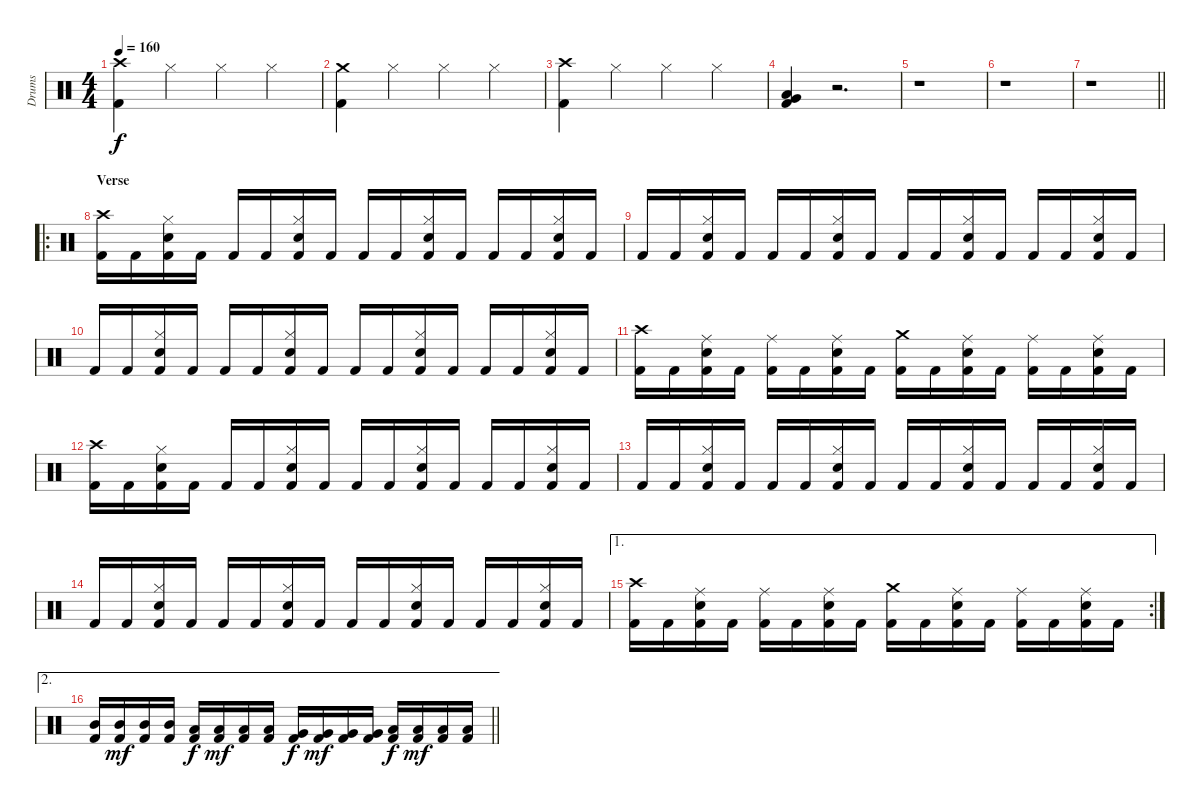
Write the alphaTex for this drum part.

\track ("Drums" "Drums") {instrument percussion}
\staff {score}
\articulation defaults
\ts (4 4)
\tempo 160
\clef neutral
\ks c
("Kick (hit) 2" "Crash high (hit)").4{dy f} "Hi-Hat (closed)".4 "Hi-Hat (closed)".4 "Hi-Hat (closed)".4 |
("Kick (hit) 2" "Crash medium (hit)").4 "Hi-Hat (closed)".4 "Hi-Hat (closed)".4 "Hi-Hat (closed)".4 |
("Kick (hit) 2" "Crash high (hit)").4 "Hi-Hat (closed)".4 "Hi-Hat (closed)".4 "Hi-Hat (closed)".4 |
("Kick (hit) 2" "Low Floor Tom (hit)" "Very Low Tom (hit)").4 r.2{d} |
r.1 |
r.1 |
\barLineRight lightlight
r.1 |
\ro
\section ("" "Verse")
("Kick (hit) 2" "Crash high (hit)").16 "Kick (hit) 2".16 ("Kick (hit) 2" "Hi-Hat (closed)" "Electric Snare (hit)").16 "Kick (hit) 2".16 "Kick (hit) 2".16 "Kick (hit) 2".16 ("Kick (hit) 2" "Hi-Hat (closed)" "Electric Snare (hit)").16 "Kick (hit) 2".16 "Kick (hit) 2".16 "Kick (hit) 2".16 ("Kick (hit) 2" "Hi-Hat (closed)" "Electric Snare (hit)").16 "Kick (hit) 2".16 "Kick (hit) 2".16 "Kick (hit) 2".16 ("Kick (hit) 2" "Hi-Hat (closed)" "Electric Snare (hit)").16 "Kick (hit) 2".16 |
"Kick (hit) 2".16 "Kick (hit) 2".16 ("Kick (hit) 2" "Hi-Hat (closed)" "Electric Snare (hit)").16 "Kick (hit) 2".16 "Kick (hit) 2".16 "Kick (hit) 2".16 ("Kick (hit) 2" "Hi-Hat (closed)" "Electric Snare (hit)").16 "Kick (hit) 2".16 "Kick (hit) 2".16 "Kick (hit) 2".16 ("Kick (hit) 2" "Hi-Hat (closed)" "Electric Snare (hit)").16 "Kick (hit) 2".16 "Kick (hit) 2".16 "Kick (hit) 2".16 ("Kick (hit) 2" "Hi-Hat (closed)" "Electric Snare (hit)").16 "Kick (hit) 2".16 |
"Kick (hit) 2".16 "Kick (hit) 2".16 ("Kick (hit) 2" "Hi-Hat (closed)" "Electric Snare (hit)").16 "Kick (hit) 2".16 "Kick (hit) 2".16 "Kick (hit) 2".16 ("Kick (hit) 2" "Hi-Hat (closed)" "Electric Snare (hit)").16 "Kick (hit) 2".16 "Kick (hit) 2".16 "Kick (hit) 2".16 ("Kick (hit) 2" "Hi-Hat (closed)" "Electric Snare (hit)").16 "Kick (hit) 2".16 "Kick (hit) 2".16 "Kick (hit) 2".16 ("Kick (hit) 2" "Hi-Hat (closed)" "Electric Snare (hit)").16 "Kick (hit) 2".16 |
("Kick (hit) 2" "Crash high (hit)").16 "Kick (hit) 2".16 ("Kick (hit) 2" "Ride (middle)" "Electric Snare (hit)").16 "Kick (hit) 2".16 ("Kick (hit) 2" "Ride (middle)").16 "Kick (hit) 2".16 ("Kick (hit) 2" "Ride (middle)" "Electric Snare (hit)").16 "Kick (hit) 2".16 ("Kick (hit) 2" "Crash medium (hit)").16 "Kick (hit) 2".16 ("Kick (hit) 2" "Ride (middle)" "Electric Snare (hit)").16 "Kick (hit) 2".16 ("Kick (hit) 2" "Ride (middle)").16 "Kick (hit) 2".16 ("Kick (hit) 2" "Ride (middle)" "Electric Snare (hit)").16 "Kick (hit) 2".16 |
("Kick (hit) 2" "Crash high (hit)").16 "Kick (hit) 2".16 ("Kick (hit) 2" "Hi-Hat (closed)" "Electric Snare (hit)").16 "Kick (hit) 2".16 "Kick (hit) 2".16 "Kick (hit) 2".16 ("Kick (hit) 2" "Hi-Hat (closed)" "Electric Snare (hit)").16 "Kick (hit) 2".16 "Kick (hit) 2".16 "Kick (hit) 2".16 ("Kick (hit) 2" "Hi-Hat (closed)" "Electric Snare (hit)").16 "Kick (hit) 2".16 "Kick (hit) 2".16 "Kick (hit) 2".16 ("Kick (hit) 2" "Hi-Hat (closed)" "Electric Snare (hit)").16 "Kick (hit) 2".16 |
"Kick (hit) 2".16 "Kick (hit) 2".16 ("Kick (hit) 2" "Hi-Hat (closed)" "Electric Snare (hit)").16 "Kick (hit) 2".16 "Kick (hit) 2".16 "Kick (hit) 2".16 ("Kick (hit) 2" "Hi-Hat (closed)" "Electric Snare (hit)").16 "Kick (hit) 2".16 "Kick (hit) 2".16 "Kick (hit) 2".16 ("Kick (hit) 2" "Hi-Hat (closed)" "Electric Snare (hit)").16 "Kick (hit) 2".16 "Kick (hit) 2".16 "Kick (hit) 2".16 ("Kick (hit) 2" "Hi-Hat (closed)" "Electric Snare (hit)").16 "Kick (hit) 2".16 |
"Kick (hit) 2".16 "Kick (hit) 2".16 ("Kick (hit) 2" "Hi-Hat (closed)" "Electric Snare (hit)").16 "Kick (hit) 2".16 "Kick (hit) 2".16 "Kick (hit) 2".16 ("Kick (hit) 2" "Hi-Hat (closed)" "Electric Snare (hit)").16 "Kick (hit) 2".16 "Kick (hit) 2".16 "Kick (hit) 2".16 ("Kick (hit) 2" "Hi-Hat (closed)" "Electric Snare (hit)").16 "Kick (hit) 2".16 "Kick (hit) 2".16 "Kick (hit) 2".16 ("Kick (hit) 2" "Hi-Hat (closed)" "Electric Snare (hit)").16 "Kick (hit) 2".16 |
\ae 1
\rc 2
("Kick (hit) 2" "Crash high (hit)").16 "Kick (hit) 2".16 ("Kick (hit) 2" "Ride (middle)" "Electric Snare (hit)").16 "Kick (hit) 2".16 ("Kick (hit) 2" "Ride (middle)").16 "Kick (hit) 2".16 ("Kick (hit) 2" "Ride (middle)" "Electric Snare (hit)").16 "Kick (hit) 2".16 ("Kick (hit) 2" "Crash medium (hit)").16 "Kick (hit) 2".16 ("Kick (hit) 2" "Ride (middle)" "Electric Snare (hit)").16 "Kick (hit) 2".16 ("Kick (hit) 2" "Ride (middle)").16 "Kick (hit) 2".16 ("Kick (hit) 2" "Ride (middle)" "Electric Snare (hit)").16 "Kick (hit) 2".16 |
\ae 2
\barLineRight lightlight
("Kick (hit) 2" "Mid Tom (hit)").16 ("Kick (hit) 2" "Mid Tom (hit)").16{dy mf} ("Kick (hit) 2" "Mid Tom (hit)").16 ("Kick (hit) 2" "Mid Tom (hit)").16 ("Kick (hit) 2" "Low Tom (hit)").16{dy f} ("Kick (hit) 2" "Low Tom (hit)").16{dy mf} ("Kick (hit) 2" "Low Tom (hit)").16 ("Kick (hit) 2" "Low Tom (hit)").16 ("Kick (hit) 2" "Very Low Tom (hit)").16{dy f} ("Kick (hit) 2" "Very Low Tom (hit)").16{dy mf} ("Kick (hit) 2" "Very Low Tom (hit)").16 ("Kick (hit) 2" "Very Low Tom (hit)").16 ("Kick (hit) 2" "Low Floor Tom (hit)").16{dy f} ("Kick (hit) 2" "Low Floor Tom (hit)").16{dy mf} ("Kick (hit) 2" "Low Floor Tom (hit)").16 ("Kick (hit) 2" "Low Floor Tom (hit)").16
